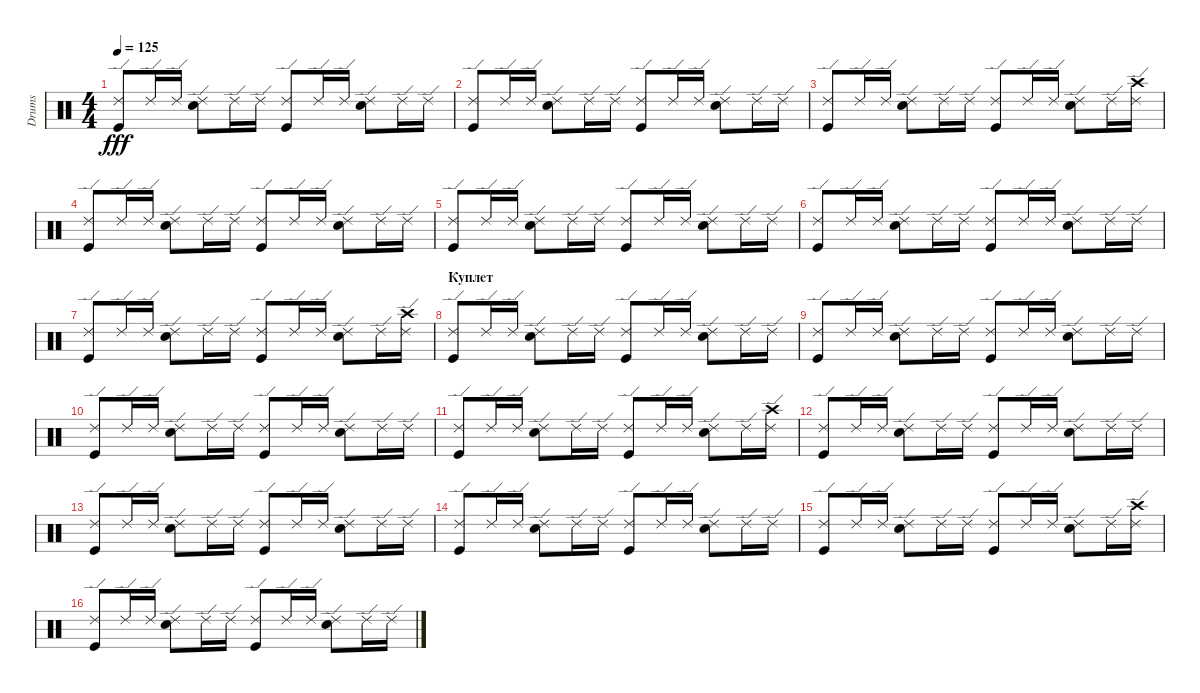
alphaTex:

\track ("Drums" "Drums") {instrument percussion}
\staff {score}
\articulation defaults
\ts (4 4)
\tempo 125
\clef neutral
\ks c
("Ride (edge) 2" "Kick (hit)").8{dy fff} "Ride (edge) 2".16 "Ride (edge) 2".16 ("Ride (edge) 2" "Snare (hit) 2").8 "Ride (edge) 2".16 "Ride (edge) 2".16 ("Ride (edge) 2" "Kick (hit)").8 "Ride (edge) 2".16 "Ride (edge) 2".16 ("Ride (edge) 2" "Snare (hit) 2").8 "Ride (edge) 2".16 "Ride (edge) 2".16 |
("Ride (edge) 2" "Kick (hit)").8 "Ride (edge) 2".16 "Ride (edge) 2".16 ("Ride (edge) 2" "Snare (hit) 2").8 "Ride (edge) 2".16 "Ride (edge) 2".16 ("Ride (edge) 2" "Kick (hit)").8 "Ride (edge) 2".16 "Ride (edge) 2".16 ("Ride (edge) 2" "Snare (hit) 2").8 "Ride (edge) 2".16 "Ride (edge) 2".16 |
("Ride (edge) 2" "Kick (hit)").8 "Ride (edge) 2".16 "Ride (edge) 2".16 ("Ride (edge) 2" "Snare (hit) 2").8 "Ride (edge) 2".16 "Ride (edge) 2".16 ("Ride (edge) 2" "Kick (hit)").8 "Ride (edge) 2".16 "Ride (edge) 2".16 ("Ride (edge) 2" "Snare (hit) 2").8 "Ride (edge) 2".16 ("Ride (edge) 2" "Crash high (hit)").16 |
("Ride (edge) 2" "Kick (hit)").8 "Ride (edge) 2".16 "Ride (edge) 2".16 ("Ride (edge) 2" "Snare (hit) 2").8 "Ride (edge) 2".16 "Ride (edge) 2".16 ("Ride (edge) 2" "Kick (hit)").8 "Ride (edge) 2".16 "Ride (edge) 2".16 ("Ride (edge) 2" "Snare (hit) 2").8 "Ride (edge) 2".16 "Ride (edge) 2".16 |
("Ride (edge) 2" "Kick (hit)").8 "Ride (edge) 2".16 "Ride (edge) 2".16 ("Ride (edge) 2" "Snare (hit) 2").8 "Ride (edge) 2".16 "Ride (edge) 2".16 ("Ride (edge) 2" "Kick (hit)").8 "Ride (edge) 2".16 "Ride (edge) 2".16 ("Ride (edge) 2" "Snare (hit) 2").8 "Ride (edge) 2".16 "Ride (edge) 2".16 |
("Ride (edge) 2" "Kick (hit)").8 "Ride (edge) 2".16 "Ride (edge) 2".16 ("Ride (edge) 2" "Snare (hit) 2").8 "Ride (edge) 2".16 "Ride (edge) 2".16 ("Ride (edge) 2" "Kick (hit)").8 "Ride (edge) 2".16 "Ride (edge) 2".16 ("Ride (edge) 2" "Snare (hit) 2").8 "Ride (edge) 2".16 "Ride (edge) 2".16 |
("Ride (edge) 2" "Kick (hit)").8 "Ride (edge) 2".16 "Ride (edge) 2".16 ("Ride (edge) 2" "Snare (hit) 2").8 "Ride (edge) 2".16 "Ride (edge) 2".16 ("Ride (edge) 2" "Kick (hit)").8 "Ride (edge) 2".16 "Ride (edge) 2".16 ("Ride (edge) 2" "Snare (hit) 2").8 "Ride (edge) 2".16 ("Ride (edge) 2" "Crash high (hit)").16 |
\section ("" "Куплет")
("Ride (edge) 2" "Kick (hit)").8 "Ride (edge) 2".16 "Ride (edge) 2".16 ("Ride (edge) 2" "Snare (hit) 2").8 "Ride (edge) 2".16 "Ride (edge) 2".16 ("Ride (edge) 2" "Kick (hit)").8 "Ride (edge) 2".16 "Ride (edge) 2".16 ("Ride (edge) 2" "Snare (hit) 2").8 "Ride (edge) 2".16 "Ride (edge) 2".16 |
("Ride (edge) 2" "Kick (hit)").8 "Ride (edge) 2".16 "Ride (edge) 2".16 ("Ride (edge) 2" "Snare (hit) 2").8 "Ride (edge) 2".16 "Ride (edge) 2".16 ("Ride (edge) 2" "Kick (hit)").8 "Ride (edge) 2".16 "Ride (edge) 2".16 ("Ride (edge) 2" "Snare (hit) 2").8 "Ride (edge) 2".16 "Ride (edge) 2".16 |
("Ride (edge) 2" "Kick (hit)").8 "Ride (edge) 2".16 "Ride (edge) 2".16 ("Ride (edge) 2" "Snare (hit) 2").8 "Ride (edge) 2".16 "Ride (edge) 2".16 ("Ride (edge) 2" "Kick (hit)").8 "Ride (edge) 2".16 "Ride (edge) 2".16 ("Ride (edge) 2" "Snare (hit) 2").8 "Ride (edge) 2".16 "Ride (edge) 2".16 |
("Ride (edge) 2" "Kick (hit)").8 "Ride (edge) 2".16 "Ride (edge) 2".16 ("Ride (edge) 2" "Snare (hit) 2").8 "Ride (edge) 2".16 "Ride (edge) 2".16 ("Ride (edge) 2" "Kick (hit)").8 "Ride (edge) 2".16 "Ride (edge) 2".16 ("Ride (edge) 2" "Snare (hit) 2").8 "Ride (edge) 2".16 ("Ride (edge) 2" "Crash high (hit)").16 |
("Ride (edge) 2" "Kick (hit)").8 "Ride (edge) 2".16 "Ride (edge) 2".16 ("Ride (edge) 2" "Snare (hit) 2").8 "Ride (edge) 2".16 "Ride (edge) 2".16 ("Ride (edge) 2" "Kick (hit)").8 "Ride (edge) 2".16 "Ride (edge) 2".16 ("Ride (edge) 2" "Snare (hit) 2").8 "Ride (edge) 2".16 "Ride (edge) 2".16 |
("Ride (edge) 2" "Kick (hit)").8 "Ride (edge) 2".16 "Ride (edge) 2".16 ("Ride (edge) 2" "Snare (hit) 2").8 "Ride (edge) 2".16 "Ride (edge) 2".16 ("Ride (edge) 2" "Kick (hit)").8 "Ride (edge) 2".16 "Ride (edge) 2".16 ("Ride (edge) 2" "Snare (hit) 2").8 "Ride (edge) 2".16 "Ride (edge) 2".16 |
("Ride (edge) 2" "Kick (hit)").8 "Ride (edge) 2".16 "Ride (edge) 2".16 ("Ride (edge) 2" "Snare (hit) 2").8 "Ride (edge) 2".16 "Ride (edge) 2".16 ("Ride (edge) 2" "Kick (hit)").8 "Ride (edge) 2".16 "Ride (edge) 2".16 ("Ride (edge) 2" "Snare (hit) 2").8 "Ride (edge) 2".16 "Ride (edge) 2".16 |
("Ride (edge) 2" "Kick (hit)").8 "Ride (edge) 2".16 "Ride (edge) 2".16 ("Ride (edge) 2" "Snare (hit) 2").8 "Ride (edge) 2".16 "Ride (edge) 2".16 ("Ride (edge) 2" "Kick (hit)").8 "Ride (edge) 2".16 "Ride (edge) 2".16 ("Ride (edge) 2" "Snare (hit) 2").8 "Ride (edge) 2".16 ("Ride (edge) 2" "Crash high (hit)").16 |
("Ride (edge) 2" "Kick (hit)").8 "Ride (edge) 2".16 "Ride (edge) 2".16 ("Ride (edge) 2" "Snare (hit) 2").8 "Ride (edge) 2".16 "Ride (edge) 2".16 ("Ride (edge) 2" "Kick (hit)").8 "Ride (edge) 2".16 "Ride (edge) 2".16 ("Ride (edge) 2" "Snare (hit) 2").8 "Ride (edge) 2".16 "Ride (edge) 2".16
